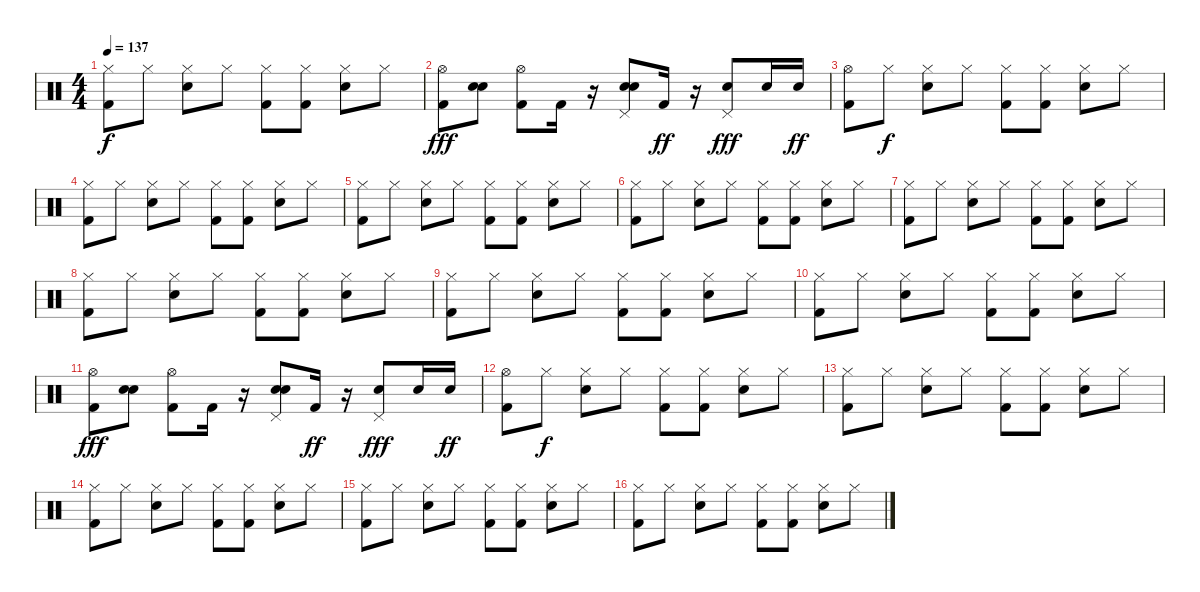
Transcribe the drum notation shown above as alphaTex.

\track "" {instrument percussion}
\staff {score}
\articulation defaults
\ts (4 4)
\tempo 137
\clef neutral
\ks c
("Kick (hit) 2" "Hi-Hat (closed)").8{dy f} "Hi-Hat (closed)".8 ("Hi-Hat (closed)" "Electric Snare (hit)").8 "Hi-Hat (closed)".8 ("Kick (hit) 2" "Hi-Hat (closed)").8 ("Kick (hit) 2" "Hi-Hat (closed)").8 ("Electric Snare (hit)" "Hi-Hat (closed)").8 "Hi-Hat (closed)".8 |
("Hi-Hat (open)" "Kick (hit) 2").8{dy fff} ("Electric Snare (hit)" "Electric Snare (hit)").8 ("Hi-Hat (open)" "Kick (hit) 2").8 "Kick (hit) 2".16 r.16 ("Electric Snare (hit)" "Pedal Hi-Hat (hit)" "Electric Snare (hit)").8 "Kick (hit) 2".16{dy ff} r.16 ("Pedal Hi-Hat (hit)" "Electric Snare (hit)").8{dy fff} "Electric Snare (hit)".16 "Electric Snare (hit)".16{dy ff} |
("Kick (hit) 2" "Hi-Hat (open)").8 "Hi-Hat (closed)".8{dy f} ("Hi-Hat (closed)" "Electric Snare (hit)").8 "Hi-Hat (closed)".8 ("Kick (hit) 2" "Hi-Hat (closed)").8 ("Kick (hit) 2" "Hi-Hat (closed)").8 ("Electric Snare (hit)" "Hi-Hat (closed)").8 "Hi-Hat (closed)".8 |
("Kick (hit) 2" "Hi-Hat (closed)").8 "Hi-Hat (closed)".8 ("Hi-Hat (closed)" "Electric Snare (hit)").8 "Hi-Hat (closed)".8 ("Kick (hit) 2" "Hi-Hat (closed)").8 ("Kick (hit) 2" "Hi-Hat (closed)").8 ("Electric Snare (hit)" "Hi-Hat (closed)").8 "Hi-Hat (closed)".8 |
("Kick (hit) 2" "Hi-Hat (closed)").8 "Hi-Hat (closed)".8 ("Hi-Hat (closed)" "Electric Snare (hit)").8 "Hi-Hat (closed)".8 ("Kick (hit) 2" "Hi-Hat (closed)").8 ("Kick (hit) 2" "Hi-Hat (closed)").8 ("Electric Snare (hit)" "Hi-Hat (closed)").8 "Hi-Hat (closed)".8 |
("Kick (hit) 2" "Hi-Hat (closed)").8 "Hi-Hat (closed)".8 ("Hi-Hat (closed)" "Electric Snare (hit)").8 "Hi-Hat (closed)".8 ("Kick (hit) 2" "Hi-Hat (closed)").8 ("Kick (hit) 2" "Hi-Hat (closed)").8 ("Electric Snare (hit)" "Hi-Hat (closed)").8 "Hi-Hat (closed)".8 |
("Kick (hit) 2" "Hi-Hat (closed)").8 "Hi-Hat (closed)".8 ("Hi-Hat (closed)" "Electric Snare (hit)").8 "Hi-Hat (closed)".8 ("Kick (hit) 2" "Hi-Hat (closed)").8 ("Kick (hit) 2" "Hi-Hat (closed)").8 ("Electric Snare (hit)" "Hi-Hat (closed)").8 "Hi-Hat (closed)".8 |
("Kick (hit) 2" "Hi-Hat (closed)").8 "Hi-Hat (closed)".8 ("Hi-Hat (closed)" "Electric Snare (hit)").8 "Hi-Hat (closed)".8 ("Kick (hit) 2" "Hi-Hat (closed)").8 ("Kick (hit) 2" "Hi-Hat (closed)").8 ("Electric Snare (hit)" "Hi-Hat (closed)").8 "Hi-Hat (closed)".8 |
("Kick (hit) 2" "Hi-Hat (closed)").8 "Hi-Hat (closed)".8 ("Hi-Hat (closed)" "Electric Snare (hit)").8 "Hi-Hat (closed)".8 ("Kick (hit) 2" "Hi-Hat (closed)").8 ("Kick (hit) 2" "Hi-Hat (closed)").8 ("Electric Snare (hit)" "Hi-Hat (closed)").8 "Hi-Hat (closed)".8 |
("Kick (hit) 2" "Hi-Hat (closed)").8 "Hi-Hat (closed)".8 ("Hi-Hat (closed)" "Electric Snare (hit)").8 "Hi-Hat (closed)".8 ("Kick (hit) 2" "Hi-Hat (closed)").8 ("Kick (hit) 2" "Hi-Hat (closed)").8 ("Electric Snare (hit)" "Hi-Hat (closed)").8 "Hi-Hat (closed)".8 |
("Hi-Hat (open)" "Kick (hit) 2").8{dy fff} ("Electric Snare (hit)" "Electric Snare (hit)").8 ("Hi-Hat (open)" "Kick (hit) 2").8 "Kick (hit) 2".16 r.16 ("Electric Snare (hit)" "Pedal Hi-Hat (hit)" "Electric Snare (hit)").8 "Kick (hit) 2".16{dy ff} r.16 ("Pedal Hi-Hat (hit)" "Electric Snare (hit)").8{dy fff} "Electric Snare (hit)".16 "Electric Snare (hit)".16{dy ff} |
("Kick (hit) 2" "Hi-Hat (open)").8 "Hi-Hat (closed)".8{dy f} ("Hi-Hat (closed)" "Electric Snare (hit)").8 "Hi-Hat (closed)".8 ("Kick (hit) 2" "Hi-Hat (closed)").8 ("Kick (hit) 2" "Hi-Hat (closed)").8 ("Electric Snare (hit)" "Hi-Hat (closed)").8 "Hi-Hat (closed)".8 |
("Kick (hit) 2" "Hi-Hat (closed)").8 "Hi-Hat (closed)".8 ("Hi-Hat (closed)" "Electric Snare (hit)").8 "Hi-Hat (closed)".8 ("Kick (hit) 2" "Hi-Hat (closed)").8 ("Kick (hit) 2" "Hi-Hat (closed)").8 ("Electric Snare (hit)" "Hi-Hat (closed)").8 "Hi-Hat (closed)".8 |
("Kick (hit) 2" "Hi-Hat (closed)").8 "Hi-Hat (closed)".8 ("Hi-Hat (closed)" "Electric Snare (hit)").8 "Hi-Hat (closed)".8 ("Kick (hit) 2" "Hi-Hat (closed)").8 ("Kick (hit) 2" "Hi-Hat (closed)").8 ("Electric Snare (hit)" "Hi-Hat (closed)").8 "Hi-Hat (closed)".8 |
("Kick (hit) 2" "Hi-Hat (closed)").8 "Hi-Hat (closed)".8 ("Hi-Hat (closed)" "Electric Snare (hit)").8 "Hi-Hat (closed)".8 ("Kick (hit) 2" "Hi-Hat (closed)").8 ("Kick (hit) 2" "Hi-Hat (closed)").8 ("Electric Snare (hit)" "Hi-Hat (closed)").8 "Hi-Hat (closed)".8 |
("Kick (hit) 2" "Hi-Hat (closed)").8 "Hi-Hat (closed)".8 ("Hi-Hat (closed)" "Electric Snare (hit)").8 "Hi-Hat (closed)".8 ("Kick (hit) 2" "Hi-Hat (closed)").8 ("Kick (hit) 2" "Hi-Hat (closed)").8 ("Electric Snare (hit)" "Hi-Hat (closed)").8 "Hi-Hat (closed)".8
